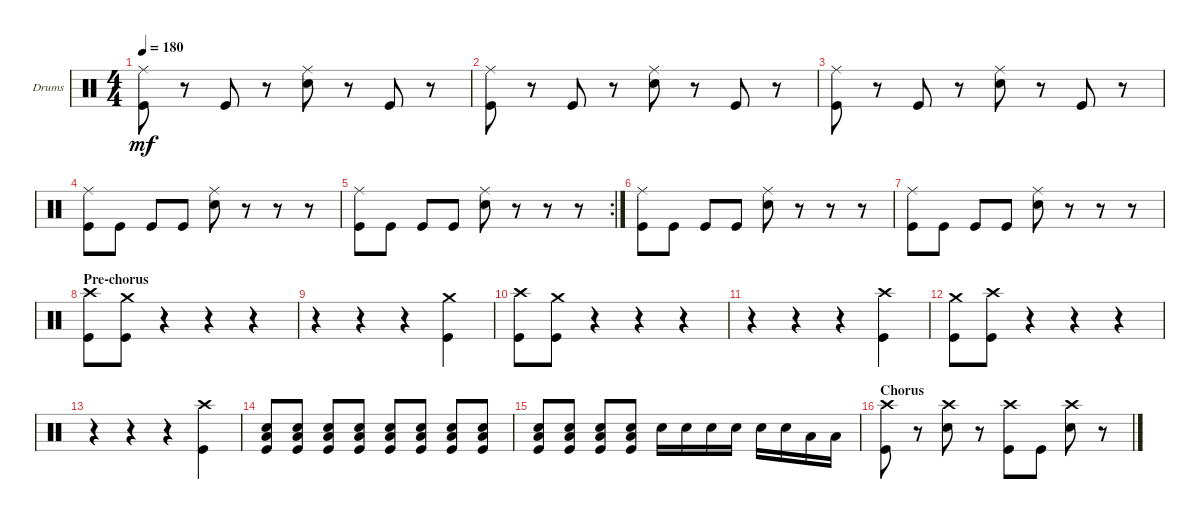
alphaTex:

\defaultSystemsLayout 4
\bracketExtendMode groupsimilarinstruments
\firstSystemTrackNameOrientation horizontal
\otherSystemsTrackNameOrientation horizontal
\track ("Drums" "Drums") {instrument percussion}
\staff {score}
\articulation defaults
\ts (4 4)
\tempo 180
\clef neutral
\ks c
("Kick (hit)" "Ride (middle)").8{dy mf} r.8 "Kick (hit)".8 r.8 ("Snare (hit) 2" "Ride (middle)").8 r.8 "Kick (hit)".8 r.8 |
("Kick (hit)" "Ride (middle)").8 r.8 "Kick (hit)".8 r.8 ("Snare (hit) 2" "Ride (middle)").8 r.8 "Kick (hit)".8 r.8 |
("Kick (hit)" "Ride (middle)").8 r.8 "Kick (hit)".8 r.8 ("Snare (hit) 2" "Ride (middle)").8 r.8 "Kick (hit)".8 r.8 |
("Kick (hit)" "Ride (middle)").8 "Kick (hit)".8 "Kick (hit)".8 "Kick (hit)".8 ("Snare (hit) 2" "Ride (middle)").8 r.8 r.8 r.8 |
\rc 2
("Kick (hit)" "Ride (middle)").8 "Kick (hit)".8 "Kick (hit)".8 "Kick (hit)".8 ("Snare (hit) 2" "Ride (middle)").8 r.8 r.8 r.8 |
("Kick (hit)" "Ride (middle)").8 "Kick (hit)".8 "Kick (hit)".8 "Kick (hit)".8 ("Snare (hit) 2" "Ride (middle)").8 r.8 r.8 r.8 |
("Kick (hit)" "Ride (middle)").8 "Kick (hit)".8 "Kick (hit)".8 "Kick (hit)".8 ("Snare (hit) 2" "Ride (middle)").8 r.8 r.8 r.8 |
\section ("" "Pre-chorus")
("Kick (hit)" "Crash high (hit)").8 ("Kick (hit)" "Crash medium (hit)").8 r.4 r.4 r.4 |
r.4 r.4 r.4 ("Kick (hit)" "Crash medium (hit)").4 |
("Kick (hit)" "Crash high (hit)").8 ("Kick (hit)" "Crash medium (hit)").8 r.4 r.4 r.4 |
r.4 r.4 r.4 ("Kick (hit)" "Crash high (hit)").4 |
("Kick (hit)" "Crash medium (hit)").8 ("Kick (hit)" "Crash high (hit)").8 r.4 r.4 r.4 |
r.4 r.4 r.4 ("Kick (hit)" "Crash high (hit)").4 |
("Kick (hit)" "Snare (hit) 2" "Low Tom (hit)").8 ("Kick (hit)" "Snare (hit) 2" "Low Tom (hit)").8 ("Kick (hit)" "Snare (hit) 2" "Low Tom (hit)").8 ("Kick (hit)" "Snare (hit) 2" "Low Tom (hit)").8 ("Kick (hit)" "Snare (hit) 2" "Low Tom (hit)").8 ("Kick (hit)" "Snare (hit) 2" "Low Tom (hit)").8 ("Kick (hit)" "Snare (hit) 2" "Low Tom (hit)").8 ("Kick (hit)" "Snare (hit) 2" "Low Tom (hit)").8 |
("Kick (hit)" "Snare (hit) 2" "Low Tom (hit)").8 ("Kick (hit)" "Snare (hit) 2" "Low Tom (hit)").8 ("Kick (hit)" "Snare (hit) 2" "Low Tom (hit)").8 ("Kick (hit)" "Snare (hit) 2" "Low Tom (hit)").8 "Snare (hit) 2".16 "Snare (hit) 2".16 "Snare (hit) 2".16 "Snare (hit) 2".16 "Snare (hit) 2".16 "Snare (hit) 2".16 "Low Tom (hit)".16 "Low Tom (hit)".16 |
\section ("" "Chorus")
("Kick (hit)" "Crash high (hit)").8 r.8 ("Snare (hit) 2" "Crash high (hit)").8 r.8 ("Kick (hit)" "Crash high (hit)").8 "Kick (hit)".8 ("Snare (hit) 2" "Crash high (hit)").8 r.8
